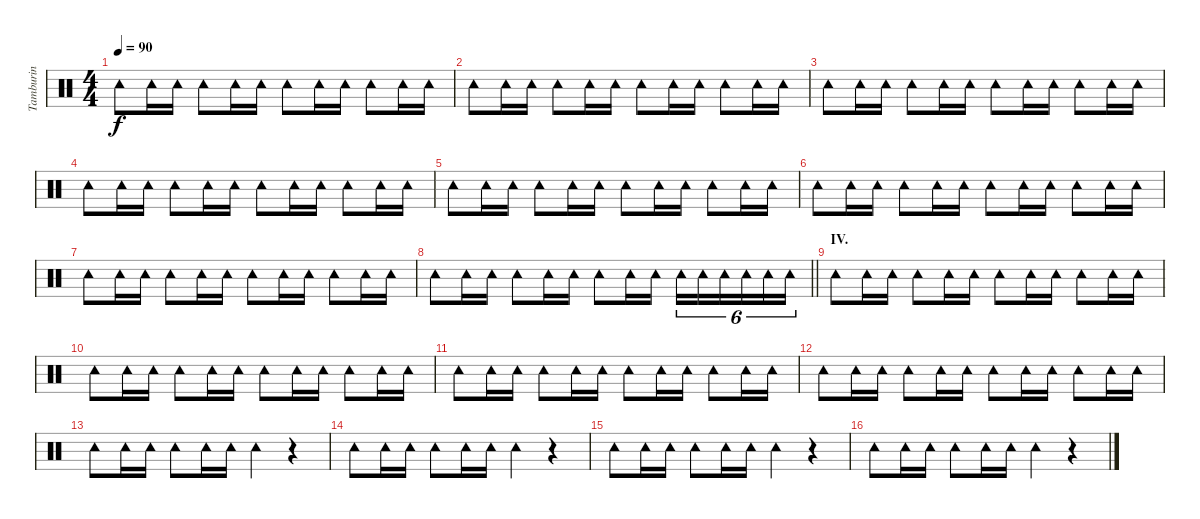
\track ("Tamburin" "Tamburin") {instrument percussion}
\staff {score}
\articulation defaults
\ts (4 4)
\tempo 90
\clef neutral
\ks c "Tambourine (hit)".8{dy f} "Tambourine (hit)".16 "Tambourine (hit)".16 "Tambourine (hit)".8 "Tambourine (hit)".16 "Tambourine (hit)".16 "Tambourine (hit)".8 "Tambourine (hit)".16 "Tambourine (hit)".16 "Tambourine (hit)".8 "Tambourine (hit)".16 "Tambourine (hit)".16
|
"Tambourine (hit)".8 "Tambourine (hit)".16 "Tambourine (hit)".16 "Tambourine (hit)".8 "Tambourine (hit)".16 "Tambourine (hit)".16 "Tambourine (hit)".8 "Tambourine (hit)".16 "Tambourine (hit)".16 "Tambourine (hit)".8 "Tambourine (hit)".16 "Tambourine (hit)".16 |
"Tambourine (hit)".8 "Tambourine (hit)".16 "Tambourine (hit)".16 "Tambourine (hit)".8 "Tambourine (hit)".16 "Tambourine (hit)".16 "Tambourine (hit)".8 "Tambourine (hit)".16 "Tambourine (hit)".16 "Tambourine (hit)".8 "Tambourine (hit)".16 "Tambourine (hit)".16 |
"Tambourine (hit)".8 "Tambourine (hit)".16 "Tambourine (hit)".16 "Tambourine (hit)".8 "Tambourine (hit)".16 "Tambourine (hit)".16 "Tambourine (hit)".8 "Tambourine (hit)".16 "Tambourine (hit)".16 "Tambourine (hit)".8 "Tambourine (hit)".16 "Tambourine (hit)".16 |
"Tambourine (hit)".8 "Tambourine (hit)".16 "Tambourine (hit)".16 "Tambourine (hit)".8 "Tambourine (hit)".16 "Tambourine (hit)".16 "Tambourine (hit)".8 "Tambourine (hit)".16 "Tambourine (hit)".16 "Tambourine (hit)".8 "Tambourine (hit)".16 "Tambourine (hit)".16 |
"Tambourine (hit)".8 "Tambourine (hit)".16 "Tambourine (hit)".16 "Tambourine (hit)".8 "Tambourine (hit)".16 "Tambourine (hit)".16 "Tambourine (hit)".8 "Tambourine (hit)".16 "Tambourine (hit)".16 "Tambourine (hit)".8 "Tambourine (hit)".16 "Tambourine (hit)".16 |
"Tambourine (hit)".8 "Tambourine (hit)".16 "Tambourine (hit)".16 "Tambourine (hit)".8 "Tambourine (hit)".16 "Tambourine (hit)".16 "Tambourine (hit)".8 "Tambourine (hit)".16 "Tambourine (hit)".16 "Tambourine (hit)".8 "Tambourine (hit)".16 "Tambourine (hit)".16 |
\barLineRight lightlight "Tambourine (hit)".8 "Tambourine (hit)".16 "Tambourine (hit)".16 "Tambourine (hit)".8 "Tambourine (hit)".16 "Tambourine (hit)".16 "Tambourine (hit)".8 "Tambourine (hit)".16 "Tambourine (hit)".16 "Tambourine (hit)".16{tu (6 4)} "Tambourine (hit)".16{tu (6 4)} "Tambourine (hit)".16{tu (6 4)} "Tambourine (hit)".16{tu (6 4)} "Tambourine (hit)".16{tu (6 4)} "Tambourine (hit)".16{tu (6 4)}
|
\section ("" "IV.")
"Tambourine (hit)".8 "Tambourine (hit)".16 "Tambourine (hit)".16 "Tambourine (hit)".8 "Tambourine (hit)".16 "Tambourine (hit)".16 "Tambourine (hit)".8 "Tambourine (hit)".16 "Tambourine (hit)".16 "Tambourine (hit)".8 "Tambourine (hit)".16 "Tambourine (hit)".16 |
"Tambourine (hit)".8 "Tambourine (hit)".16 "Tambourine (hit)".16 "Tambourine (hit)".8 "Tambourine (hit)".16 "Tambourine (hit)".16 "Tambourine (hit)".8 "Tambourine (hit)".16 "Tambourine (hit)".16 "Tambourine (hit)".8 "Tambourine (hit)".16 "Tambourine (hit)".16 |
"Tambourine (hit)".8 "Tambourine (hit)".16 "Tambourine (hit)".16 "Tambourine (hit)".8 "Tambourine (hit)".16 "Tambourine (hit)".16 "Tambourine (hit)".8 "Tambourine (hit)".16 "Tambourine (hit)".16 "Tambourine (hit)".8 "Tambourine (hit)".16 "Tambourine (hit)".16 |
"Tambourine (hit)".8 "Tambourine (hit)".16 "Tambourine (hit)".16 "Tambourine (hit)".8 "Tambourine (hit)".16 "Tambourine (hit)".16 "Tambourine (hit)".8 "Tambourine (hit)".16 "Tambourine (hit)".16 "Tambourine (hit)".8 "Tambourine (hit)".16 "Tambourine (hit)".16 |
"Tambourine (hit)".8 "Tambourine (hit)".16 "Tambourine (hit)".16 "Tambourine (hit)".8 "Tambourine (hit)".16 "Tambourine (hit)".16 "Tambourine (hit)".4 r.4 |
"Tambourine (hit)".8 "Tambourine (hit)".16 "Tambourine (hit)".16 "Tambourine (hit)".8 "Tambourine (hit)".16 "Tambourine (hit)".16 "Tambourine (hit)".4 r.4 |
"Tambourine (hit)".8 "Tambourine (hit)".16 "Tambourine (hit)".16 "Tambourine (hit)".8 "Tambourine (hit)".16 "Tambourine (hit)".16 "Tambourine (hit)".4 r.4 |
"Tambourine (hit)".8 "Tambourine (hit)".16 "Tambourine (hit)".16 "Tambourine (hit)".8 "Tambourine (hit)".16 "Tambourine (hit)".16 "Tambourine (hit)".4 r.4
